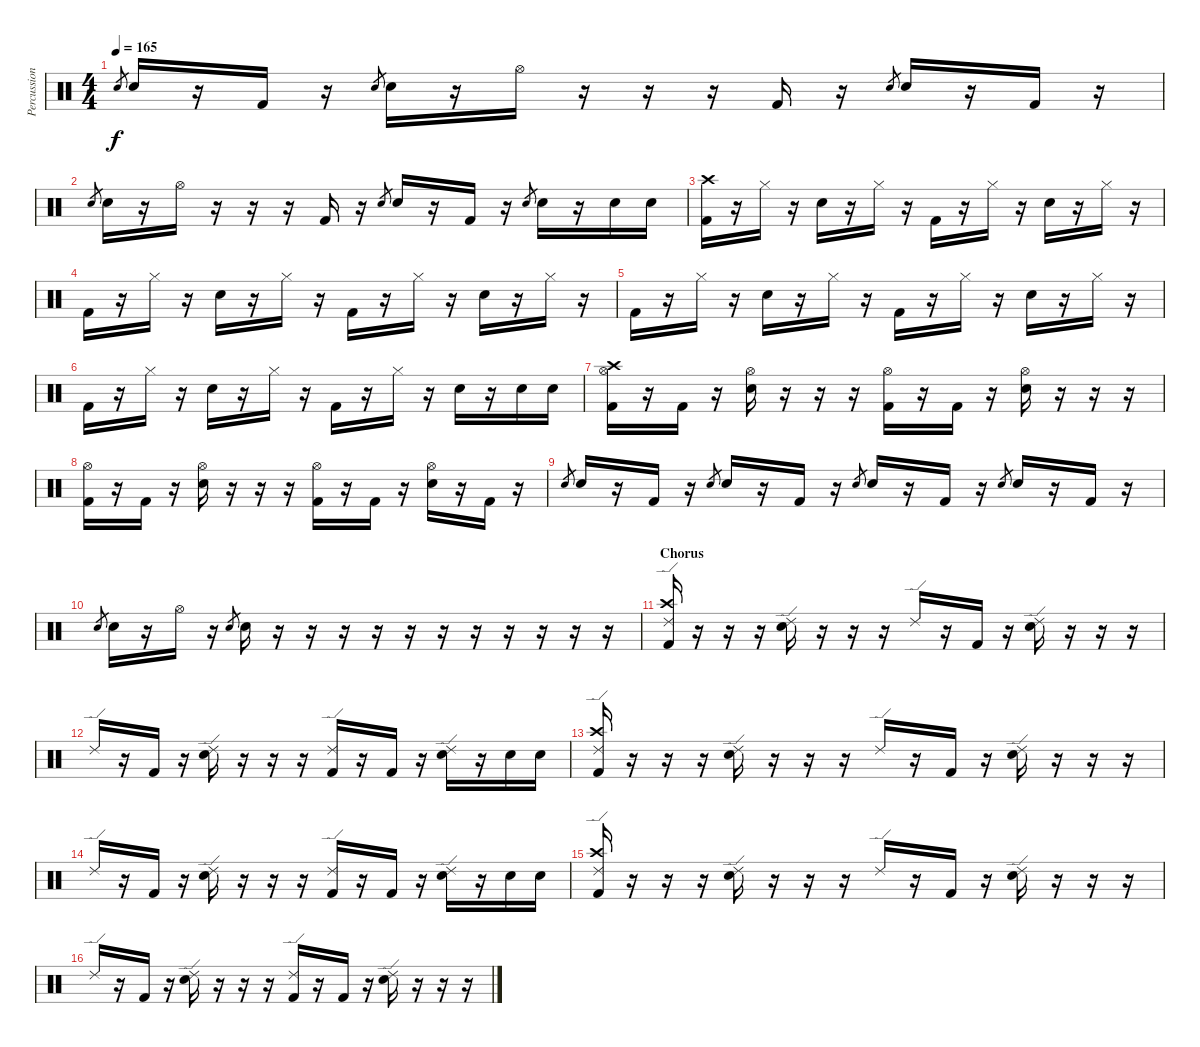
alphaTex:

\track ("Percussion" "Percussion") {instrument percussion}
\staff {score}
\articulation defaults
\ts (4 4)
\tempo 165
\clef neutral
\ks c "Snare (hit) 2".8{gr dy f} "Snare (hit) 2".16
r.16 "Kick (hit) 2".16 r.16 "Snare (hit) 2".8{gr} "Snare (hit) 2".16 r.16 "Hi-Hat (open)".16 r.16 r.16 r.16 "Kick (hit) 2".16 r.16 "Snare (hit) 2".8{gr} "Snare (hit) 2".16 r.16 "Kick (hit) 2".16 r.16 |
"Snare (hit) 2".8{gr} "Snare (hit) 2".16 r.16 "Hi-Hat (open)".16 r.16 r.16 r.16 "Kick (hit) 2".16 r.16 "Snare (hit) 2".8{gr} "Snare (hit) 2".16 r.16 "Kick (hit) 2".16 r.16 "Snare (hit) 2".8{gr} "Snare (hit) 2".16 r.16 "Snare (hit) 2".16 "Snare (hit) 2".16 |
("Crash high (hit)" "Kick (hit) 2").16 r.16 "Hi-Hat (closed)".16 r.16 "Snare (hit) 2".16 r.16 "Hi-Hat (closed)".16 r.16 "Kick (hit) 2".16 r.16 "Hi-Hat (closed)".16 r.16 "Snare (hit) 2".16 r.16 "Hi-Hat (closed)".16 r.16 |
"Kick (hit) 2".16 r.16 "Hi-Hat (closed)".16 r.16 "Snare (hit) 2".16 r.16 "Hi-Hat (closed)".16 r.16 "Kick (hit) 2".16 r.16 "Hi-Hat (closed)".16 r.16 "Snare (hit) 2".16 r.16 "Hi-Hat (closed)".16 r.16 |
"Kick (hit) 2".16 r.16 "Hi-Hat (closed)".16 r.16 "Snare (hit) 2".16 r.16 "Hi-Hat (closed)".16 r.16 "Kick (hit) 2".16 r.16 "Hi-Hat (closed)".16 r.16 "Snare (hit) 2".16 r.16 "Hi-Hat (closed)".16 r.16 |
"Kick (hit) 2".16 r.16 "Hi-Hat (closed)".16 r.16 "Snare (hit) 2".16 r.16 "Hi-Hat (closed)".16 r.16 "Kick (hit) 2".16 r.16 "Hi-Hat (closed)".16 r.16 "Snare (hit) 2".16 r.16 "Snare (hit) 2".16 "Snare (hit) 2".16 |
("Crash high (hit)" "Hi-Hat (open)" "Kick (hit) 2").16 r.16 "Kick (hit) 2".16 r.16 ("Hi-Hat (open)" "Snare (hit) 2").16 r.16 r.16 r.16 ("Hi-Hat (open)" "Kick (hit) 2").16 r.16 "Kick (hit) 2".16 r.16 ("Hi-Hat (open)" "Snare (hit) 2").16 r.16 r.16 r.16 |
("Hi-Hat (open)" "Kick (hit) 2").16 r.16 "Kick (hit) 2".16 r.16 ("Hi-Hat (open)" "Snare (hit) 2").16 r.16 r.16 r.16 ("Hi-Hat (open)" "Kick (hit) 2").16 r.16 "Kick (hit) 2".16 r.16 ("Hi-Hat (open)" "Snare (hit) 2").16 r.16 "Kick (hit) 2".16 r.16 |
"Snare (hit) 2".8{gr} "Snare (hit) 2".16 r.16 "Kick (hit) 2".16 r.16 "Snare (hit) 2".8{gr} "Snare (hit) 2".16 r.16 "Kick (hit) 2".16 r.16 "Snare (hit) 2".8{gr} "Snare (hit) 2".16 r.16 "Kick (hit) 2".16 r.16 "Snare (hit) 2".8{gr} "Snare (hit) 2".16 r.16 "Kick (hit) 2".16 r.16 |
"Snare (hit) 2".8{gr} "Snare (hit) 2".16 r.16 "Hi-Hat (open)".16 r.16 "Snare (hit) 2".8{gr} "Snare (hit) 2".16 r.16 r.16 r.16 r.16 r.16 r.16 r.16 r.16 r.16 r.16 r.16 |
\section ("" "Chorus")
("Crash high (hit)" "Ride (edge) 2" "Kick (hit) 2").16 r.16 r.16 r.16 ("Ride (edge) 2" "Snare (hit) 2").16 r.16 r.16 r.16 "Ride (edge) 2".16 r.16 "Kick (hit) 2".16 r.16 ("Ride (edge) 2" "Snare (hit) 2").16 r.16 r.16 r.16 |
"Ride (edge) 2".16 r.16 "Kick (hit) 2".16 r.16 ("Ride (edge) 2" "Snare (hit) 2").16 r.16 r.16 r.16 ("Ride (edge) 2" "Kick (hit) 2").16 r.16 "Kick (hit) 2".16 r.16 ("Ride (edge) 2" "Snare (hit) 2").16 r.16 "Snare (hit) 2".16 "Snare (hit) 2".16 |
("Crash high (hit)" "Ride (edge) 2" "Kick (hit) 2").16 r.16 r.16 r.16 ("Ride (edge) 2" "Snare (hit) 2").16 r.16 r.16 r.16 "Ride (edge) 2".16 r.16 "Kick (hit) 2".16 r.16 ("Ride (edge) 2" "Snare (hit) 2").16 r.16 r.16 r.16 |
"Ride (edge) 2".16 r.16 "Kick (hit) 2".16 r.16 ("Ride (edge) 2" "Snare (hit) 2").16 r.16 r.16 r.16 ("Ride (edge) 2" "Kick (hit) 2").16 r.16 "Kick (hit) 2".16 r.16 ("Ride (edge) 2" "Snare (hit) 2").16 r.16 "Snare (hit) 2".16 "Snare (hit) 2".16 |
("Crash high (hit)" "Ride (edge) 2" "Kick (hit) 2").16 r.16 r.16 r.16 ("Ride (edge) 2" "Snare (hit) 2").16 r.16 r.16 r.16 "Ride (edge) 2".16 r.16 "Kick (hit) 2".16 r.16 ("Ride (edge) 2" "Snare (hit) 2").16 r.16 r.16 r.16 |
"Ride (edge) 2".16 r.16 "Kick (hit) 2".16 r.16 ("Ride (edge) 2" "Snare (hit) 2").16 r.16 r.16 r.16 ("Ride (edge) 2" "Kick (hit) 2").16 r.16 "Kick (hit) 2".16 r.16 ("Ride (edge) 2" "Snare (hit) 2").16 r.16 r.16 r.16
